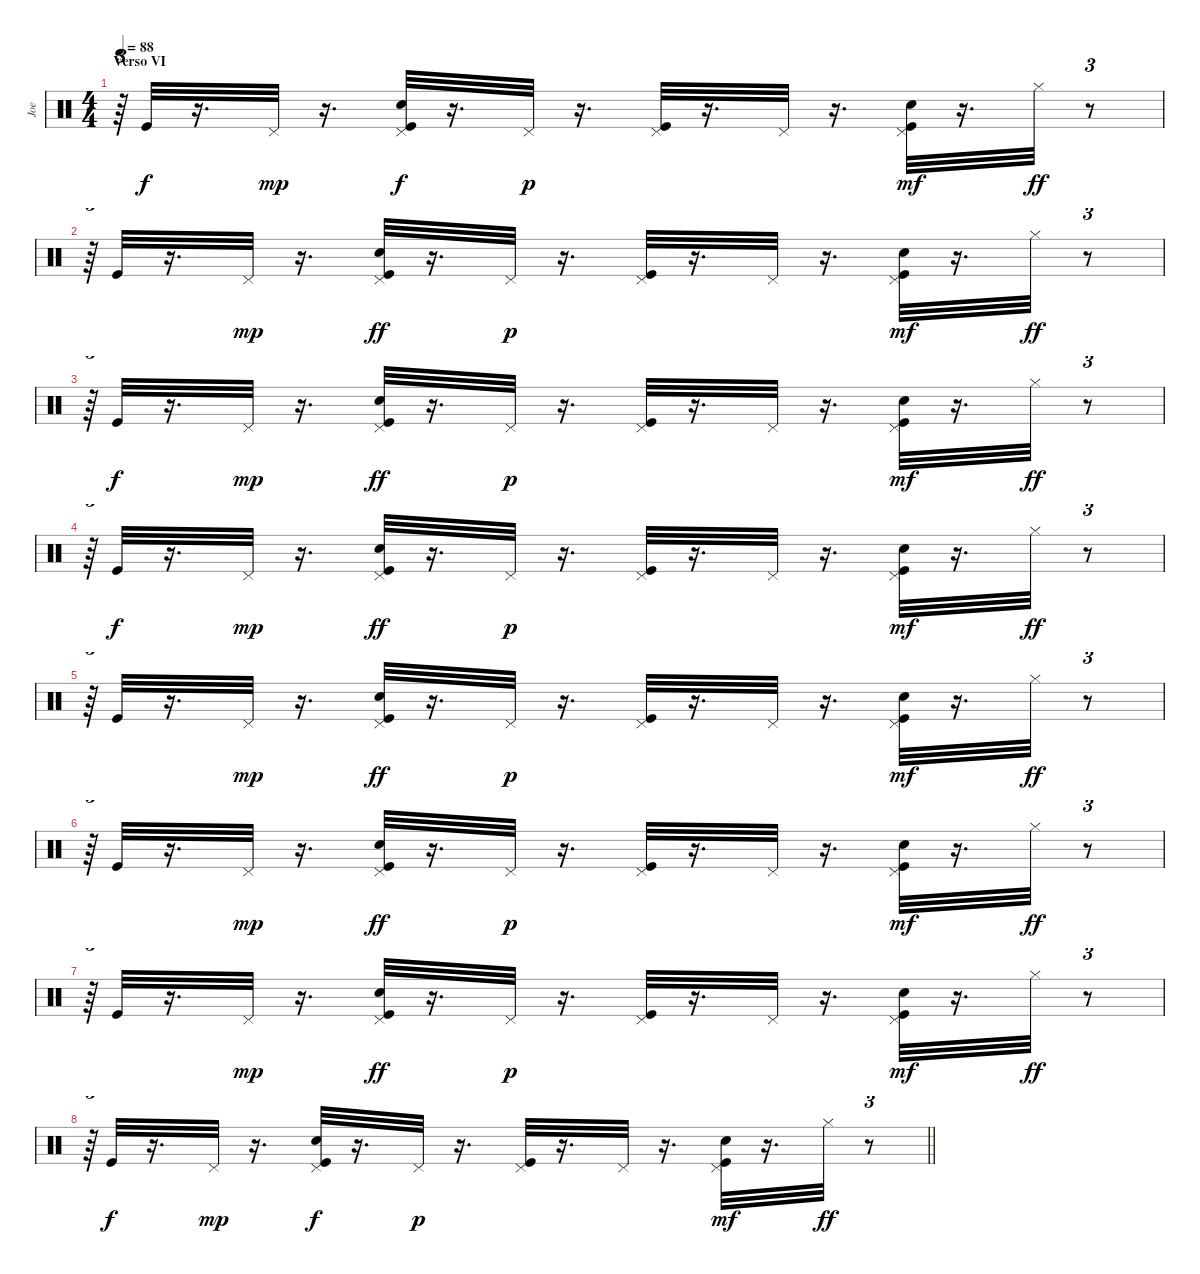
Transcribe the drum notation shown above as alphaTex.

\track ("Joe" "Joe") {instrument percussion}
\staff {score}
\articulation defaults
\ts (4 4)
\section ("" "Verso VI")
\tempo 88
\clef neutral
\ks c
r.64{tu (3 2) dy ff} "Kick (hit)".32{dy f} r.16{d} "Pedal Hi-Hat (hit)".32{dy mp} r.16{d} ("Pedal Hi-Hat (hit)" "Kick (hit)" "Electric Snare (hit)").32{dy f} r.16{d} "Pedal Hi-Hat (hit)".32{dy p} r.16{d} ("Kick (hit)" "Pedal Hi-Hat (hit)").32 r.16{d} "Pedal Hi-Hat (hit)".32 r.16{d} ("Kick (hit)" "Electric Snare (hit)" "Pedal Hi-Hat (hit)").32{dy mf} r.16{d} "Hi-Hat (closed)".32{dy ff} r.8{tu (3 2)} |
r.64{tu (3 2)} "Kick (hit)".32 r.16{d} "Pedal Hi-Hat (hit)".32{dy mp} r.16{d} ("Pedal Hi-Hat (hit)" "Kick (hit)" "Electric Snare (hit)").32{dy ff} r.16{d} "Pedal Hi-Hat (hit)".32{dy p} r.16{d} ("Kick (hit)" "Pedal Hi-Hat (hit)").32 r.16{d} "Pedal Hi-Hat (hit)".32 r.16{d} ("Kick (hit)" "Electric Snare (hit)" "Pedal Hi-Hat (hit)").32{dy mf} r.16{d} "Hi-Hat (closed)".32{dy ff} r.8{tu (3 2)} |
r.64{tu (3 2)} "Kick (hit)".32{dy f} r.16{d} "Pedal Hi-Hat (hit)".32{dy mp} r.16{d} ("Pedal Hi-Hat (hit)" "Kick (hit)" "Electric Snare (hit)").32{dy ff} r.16{d} "Pedal Hi-Hat (hit)".32{dy p} r.16{d} ("Kick (hit)" "Pedal Hi-Hat (hit)").32 r.16{d} "Pedal Hi-Hat (hit)".32 r.16{d} ("Kick (hit)" "Electric Snare (hit)" "Pedal Hi-Hat (hit)").32{dy mf} r.16{d} "Hi-Hat (closed)".32{dy ff} r.8{tu (3 2)} |
r.64{tu (3 2)} "Kick (hit)".32{dy f} r.16{d} "Pedal Hi-Hat (hit)".32{dy mp} r.16{d} ("Pedal Hi-Hat (hit)" "Kick (hit)" "Electric Snare (hit)").32{dy ff} r.16{d} "Pedal Hi-Hat (hit)".32{dy p} r.16{d} ("Kick (hit)" "Pedal Hi-Hat (hit)").32 r.16{d} "Pedal Hi-Hat (hit)".32 r.16{d} ("Kick (hit)" "Electric Snare (hit)" "Pedal Hi-Hat (hit)").32{dy mf} r.16{d} "Hi-Hat (closed)".32{dy ff} r.8{tu (3 2)} |
r.64{tu (3 2)} "Kick (hit)".32 r.16{d} "Pedal Hi-Hat (hit)".32{dy mp} r.16{d} ("Pedal Hi-Hat (hit)" "Kick (hit)" "Electric Snare (hit)").32{dy ff} r.16{d} "Pedal Hi-Hat (hit)".32{dy p} r.16{d} ("Kick (hit)" "Pedal Hi-Hat (hit)").32 r.16{d} "Pedal Hi-Hat (hit)".32 r.16{d} ("Kick (hit)" "Electric Snare (hit)" "Pedal Hi-Hat (hit)").32{dy mf} r.16{d} "Hi-Hat (closed)".32{dy ff} r.8{tu (3 2)} |
r.64{tu (3 2)} "Kick (hit)".32 r.16{d} "Pedal Hi-Hat (hit)".32{dy mp} r.16{d} ("Pedal Hi-Hat (hit)" "Kick (hit)" "Electric Snare (hit)").32{dy ff} r.16{d} "Pedal Hi-Hat (hit)".32{dy p} r.16{d} ("Kick (hit)" "Pedal Hi-Hat (hit)").32 r.16{d} "Pedal Hi-Hat (hit)".32 r.16{d} ("Kick (hit)" "Electric Snare (hit)" "Pedal Hi-Hat (hit)").32{dy mf} r.16{d} "Hi-Hat (closed)".32{dy ff} r.8{tu (3 2)} |
r.64{tu (3 2)} "Kick (hit)".32 r.16{d} "Pedal Hi-Hat (hit)".32{dy mp} r.16{d} ("Pedal Hi-Hat (hit)" "Kick (hit)" "Electric Snare (hit)").32{dy ff} r.16{d} "Pedal Hi-Hat (hit)".32{dy p} r.16{d} ("Kick (hit)" "Pedal Hi-Hat (hit)").32 r.16{d} "Pedal Hi-Hat (hit)".32 r.16{d} ("Kick (hit)" "Electric Snare (hit)" "Pedal Hi-Hat (hit)").32{dy mf} r.16{d} "Hi-Hat (closed)".32{dy ff} r.8{tu (3 2)} |
\barLineRight lightlight
r.64{tu (3 2)} "Kick (hit)".32{dy f} r.16{d} "Pedal Hi-Hat (hit)".32{dy mp} r.16{d} ("Pedal Hi-Hat (hit)" "Kick (hit)" "Electric Snare (hit)").32{dy f} r.16{d} "Pedal Hi-Hat (hit)".32{dy p} r.16{d} ("Kick (hit)" "Pedal Hi-Hat (hit)").32 r.16{d} "Pedal Hi-Hat (hit)".32 r.16{d} ("Kick (hit)" "Electric Snare (hit)" "Pedal Hi-Hat (hit)").32{dy mf} r.16{d} "Hi-Hat (closed)".32{dy ff} r.8{tu (3 2)}
